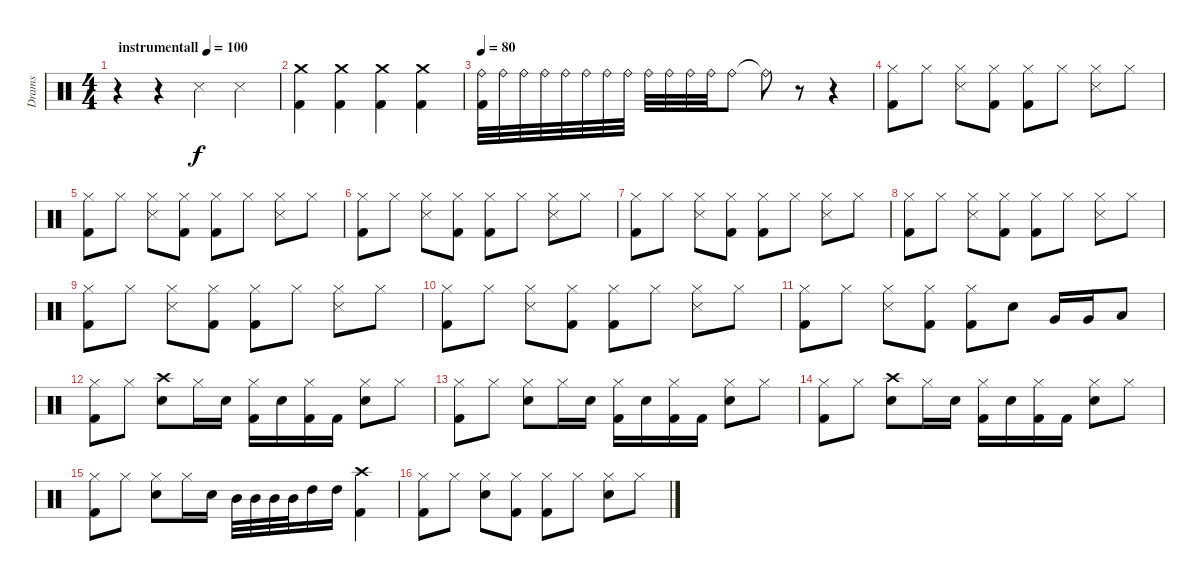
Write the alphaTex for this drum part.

\track ("Drams" "Drams") {instrument percussion}
\staff {score}
\articulation defaults
\ts (4 4)
\tempo (100 "instrumentall")
\clef neutral
\ks aminor
r.4{dy f} r.4 "Snare (side stick) 3".4 "Snare (side stick) 3".4 |
("Kick (hit) 2" "Crash medium (hit)").4 ("Kick (hit) 2" "Crash medium (hit)").4 ("Kick (hit) 2" "Crash medium (hit)").4 ("Kick (hit) 2" "Crash medium (hit)").4 |
\tempo 80
("Ride (bell)" "Kick (hit) 2").32 "Ride (bell)".32 "Ride (bell)".32 "Ride (bell)".32 "Ride (bell)".32 "Ride (bell)".32 "Ride (bell)".32 "Ride (bell)".32 "Ride (bell)".32 "Ride (bell)".32 "Ride (bell)".32 "Ride (bell)".32 "Ride (bell)".8 "Ride (bell)"{t}.8 r.8 r.4 |
("Hi-Hat (closed)" "Kick (hit) 2").8 "Hi-Hat (closed)".8 ("Hi-Hat (closed)" "Snare (side stick) 3").8 ("Hi-Hat (closed)" "Kick (hit) 2").8 ("Hi-Hat (closed)" "Kick (hit) 2").8 "Hi-Hat (closed)".8 ("Hi-Hat (closed)" "Snare (side stick) 3").8 "Hi-Hat (closed)".8 |
("Hi-Hat (closed)" "Kick (hit) 2").8 "Hi-Hat (closed)".8 ("Hi-Hat (closed)" "Snare (side stick) 3").8 ("Hi-Hat (closed)" "Kick (hit) 2").8 ("Hi-Hat (closed)" "Kick (hit) 2").8 "Hi-Hat (closed)".8 ("Hi-Hat (closed)" "Snare (side stick) 3").8 "Hi-Hat (closed)".8 |
("Hi-Hat (closed)" "Kick (hit) 2").8 "Hi-Hat (closed)".8 ("Hi-Hat (closed)" "Snare (side stick) 3").8 ("Hi-Hat (closed)" "Kick (hit) 2").8 ("Hi-Hat (closed)" "Kick (hit) 2").8 "Hi-Hat (closed)".8 ("Hi-Hat (closed)" "Snare (side stick) 3").8 "Hi-Hat (closed)".8 |
("Hi-Hat (closed)" "Kick (hit) 2").8 "Hi-Hat (closed)".8 ("Hi-Hat (closed)" "Snare (side stick) 3").8 ("Hi-Hat (closed)" "Kick (hit) 2").8 ("Hi-Hat (closed)" "Kick (hit) 2").8 "Hi-Hat (closed)".8 ("Hi-Hat (closed)" "Snare (side stick) 3").8 "Hi-Hat (closed)".8 |
("Hi-Hat (closed)" "Kick (hit) 2").8 "Hi-Hat (closed)".8 ("Hi-Hat (closed)" "Snare (side stick) 3").8 ("Hi-Hat (closed)" "Kick (hit) 2").8 ("Hi-Hat (closed)" "Kick (hit) 2").8 "Hi-Hat (closed)".8 ("Hi-Hat (closed)" "Snare (side stick) 3").8 "Hi-Hat (closed)".8 |
("Hi-Hat (closed)" "Kick (hit) 2").8 "Hi-Hat (closed)".8 ("Hi-Hat (closed)" "Snare (side stick) 3").8 ("Hi-Hat (closed)" "Kick (hit) 2").8 ("Hi-Hat (closed)" "Kick (hit) 2").8 "Hi-Hat (closed)".8 ("Hi-Hat (closed)" "Snare (side stick) 3").8 "Hi-Hat (closed)".8 |
("Hi-Hat (closed)" "Kick (hit) 2").8 "Hi-Hat (closed)".8 ("Hi-Hat (closed)" "Snare (side stick) 3").8 ("Hi-Hat (closed)" "Kick (hit) 2").8 ("Hi-Hat (closed)" "Kick (hit) 2").8 "Hi-Hat (closed)".8 ("Hi-Hat (closed)" "Snare (side stick) 3").8 "Hi-Hat (closed)".8 |
("Hi-Hat (closed)" "Kick (hit) 2").8 "Hi-Hat (closed)".8 ("Hi-Hat (closed)" "Snare (side stick) 3").8 ("Hi-Hat (closed)" "Kick (hit) 2").8 ("Hi-Hat (closed)" "Kick (hit) 2").8 "Electric Snare (hit)".8 "Very Low Tom (hit)".16 "Very Low Tom (hit)".16 "Low Tom (hit)".8 |
("Hi-Hat (closed)" "Kick (hit) 2").8 "Hi-Hat (closed)".8 ("Crash high (hit)" "Electric Snare (hit)").8 "Hi-Hat (closed)".16 "Electric Snare (hit)".16 ("Kick (hit) 2" "Hi-Hat (closed)").16 "Electric Snare (hit)".16 ("Kick (hit) 2" "Hi-Hat (closed)").16 "Kick (hit) 2".16 ("Electric Snare (hit)" "Hi-Hat (closed)").8 "Hi-Hat (closed)".8 |
("Hi-Hat (closed)" "Kick (hit) 2").8 "Hi-Hat (closed)".8 ("Hi-Hat (closed)" "Electric Snare (hit)").8 "Hi-Hat (closed)".16 "Electric Snare (hit)".16 ("Kick (hit) 2" "Hi-Hat (closed)").16 "Electric Snare (hit)".16 ("Kick (hit) 2" "Hi-Hat (closed)").16 "Kick (hit) 2".16 ("Electric Snare (hit)" "Hi-Hat (closed)").8 "Hi-Hat (closed)".8 |
("Hi-Hat (closed)" "Kick (hit) 2").8 "Hi-Hat (closed)".8 ("Crash high (hit)" "Electric Snare (hit)").8 "Hi-Hat (closed)".16 "Electric Snare (hit)".16 ("Kick (hit) 2" "Hi-Hat (closed)").16 "Electric Snare (hit)".16 ("Kick (hit) 2" "Hi-Hat (closed)").16 "Kick (hit) 2".16 ("Electric Snare (hit)" "Hi-Hat (closed)").8 "Hi-Hat (closed)".8 |
("Hi-Hat (closed)" "Kick (hit) 2").8 "Hi-Hat (closed)".8 ("Hi-Hat (closed)" "Electric Snare (hit)").8 "Hi-Hat (closed)".16 "Electric Snare (hit)".16 "Mid Tom (hit)".32 "Mid Tom (hit)".32 "Mid Tom (hit)".32 "Mid Tom (hit)".32 "High Tom (hit)".16 "High Tom (hit)".16 ("Crash high (hit)" "Kick (hit) 2").4 |
("Hi-Hat (closed)" "Kick (hit) 2").8 "Hi-Hat (closed)".8 ("Hi-Hat (closed)" "Electric Snare (hit)").8 ("Hi-Hat (closed)" "Kick (hit) 2").8 ("Hi-Hat (closed)" "Kick (hit) 2").8 "Hi-Hat (closed)".8 ("Hi-Hat (closed)" "Electric Snare (hit)").8 "Hi-Hat (closed)".8
